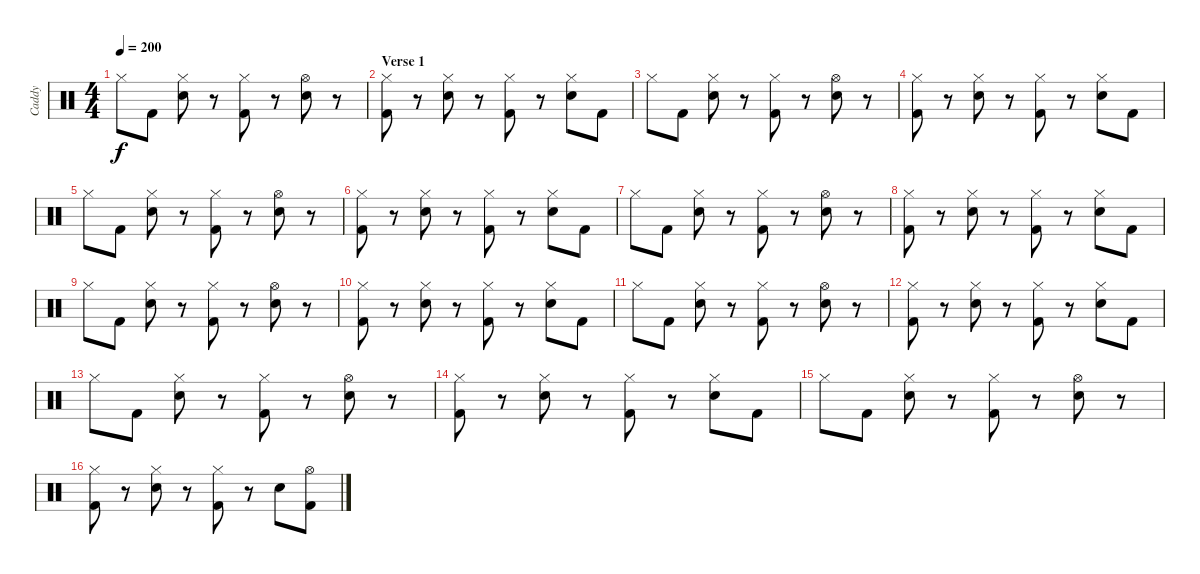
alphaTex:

\track ("Caddy" "Caddy") {instrument percussion}
\staff {score}
\articulation defaults
\ts (4 4)
\tempo 200
\clef neutral
\ks c "Hi-Hat (closed)".8{dy f} "Kick (hit) 2".8
("Hi-Hat (closed)" "Electric Snare (hit)").8 r.8 ("Hi-Hat (closed)" "Kick (hit) 2").8 r.8 ("Hi-Hat (open)" "Electric Snare (hit)").8 r.8 |
\section ("" "Verse 1")
("Hi-Hat (closed)" "Kick (hit) 2").8 r.8 ("Hi-Hat (closed)" "Electric Snare (hit)").8 r.8 ("Hi-Hat (closed)" "Kick (hit) 2").8 r.8 ("Hi-Hat (closed)" "Electric Snare (hit)").8 "Kick (hit) 2".8 |
"Hi-Hat (closed)".8 "Kick (hit) 2".8 ("Hi-Hat (closed)" "Electric Snare (hit)").8 r.8 ("Hi-Hat (closed)" "Kick (hit) 2").8 r.8 ("Hi-Hat (open)" "Electric Snare (hit)").8 r.8 |
("Hi-Hat (closed)" "Kick (hit) 2").8 r.8 ("Hi-Hat (closed)" "Electric Snare (hit)").8 r.8 ("Hi-Hat (closed)" "Kick (hit) 2").8 r.8 ("Hi-Hat (closed)" "Electric Snare (hit)").8 "Kick (hit) 2".8 |
"Hi-Hat (closed)".8 "Kick (hit) 2".8 ("Hi-Hat (closed)" "Electric Snare (hit)").8 r.8 ("Hi-Hat (closed)" "Kick (hit) 2").8 r.8 ("Hi-Hat (open)" "Electric Snare (hit)").8 r.8 |
("Hi-Hat (closed)" "Kick (hit) 2").8 r.8 ("Hi-Hat (closed)" "Electric Snare (hit)").8 r.8 ("Hi-Hat (closed)" "Kick (hit) 2").8 r.8 ("Hi-Hat (closed)" "Electric Snare (hit)").8 "Kick (hit) 2".8 |
"Hi-Hat (closed)".8 "Kick (hit) 2".8 ("Hi-Hat (closed)" "Electric Snare (hit)").8 r.8 ("Hi-Hat (closed)" "Kick (hit) 2").8 r.8 ("Hi-Hat (open)" "Electric Snare (hit)").8 r.8 |
("Hi-Hat (closed)" "Kick (hit) 2").8 r.8 ("Hi-Hat (closed)" "Electric Snare (hit)").8 r.8 ("Hi-Hat (closed)" "Kick (hit) 2").8 r.8 ("Hi-Hat (closed)" "Electric Snare (hit)").8 "Kick (hit) 2".8 |
"Hi-Hat (closed)".8 "Kick (hit) 2".8 ("Hi-Hat (closed)" "Electric Snare (hit)").8 r.8 ("Hi-Hat (closed)" "Kick (hit) 2").8 r.8 ("Hi-Hat (open)" "Electric Snare (hit)").8 r.8 |
("Hi-Hat (closed)" "Kick (hit) 2").8 r.8 ("Hi-Hat (closed)" "Electric Snare (hit)").8 r.8 ("Hi-Hat (closed)" "Kick (hit) 2").8 r.8 ("Hi-Hat (closed)" "Electric Snare (hit)").8 "Kick (hit) 2".8 |
"Hi-Hat (closed)".8 "Kick (hit) 2".8 ("Hi-Hat (closed)" "Electric Snare (hit)").8 r.8 ("Hi-Hat (closed)" "Kick (hit) 2").8 r.8 ("Hi-Hat (open)" "Electric Snare (hit)").8 r.8 |
("Hi-Hat (closed)" "Kick (hit) 2").8 r.8 ("Hi-Hat (closed)" "Electric Snare (hit)").8 r.8 ("Hi-Hat (closed)" "Kick (hit) 2").8 r.8 ("Hi-Hat (closed)" "Electric Snare (hit)").8 "Kick (hit) 2".8 |
"Hi-Hat (closed)".8 "Kick (hit) 2".8 ("Hi-Hat (closed)" "Electric Snare (hit)").8 r.8 ("Hi-Hat (closed)" "Kick (hit) 2").8 r.8 ("Hi-Hat (open)" "Electric Snare (hit)").8 r.8 |
("Hi-Hat (closed)" "Kick (hit) 2").8 r.8 ("Hi-Hat (closed)" "Electric Snare (hit)").8 r.8 ("Hi-Hat (closed)" "Kick (hit) 2").8 r.8 ("Hi-Hat (closed)" "Electric Snare (hit)").8 "Kick (hit) 2".8 |
"Hi-Hat (closed)".8 "Kick (hit) 2".8 ("Hi-Hat (closed)" "Electric Snare (hit)").8 r.8 ("Hi-Hat (closed)" "Kick (hit) 2").8 r.8 ("Hi-Hat (open)" "Electric Snare (hit)").8 r.8 |
("Hi-Hat (closed)" "Kick (hit) 2").8 r.8 ("Hi-Hat (closed)" "Electric Snare (hit)").8 r.8 ("Hi-Hat (closed)" "Kick (hit) 2").8 r.8 "Electric Snare (hit)".8 ("Hi-Hat (open)" "Kick (hit) 2").8
